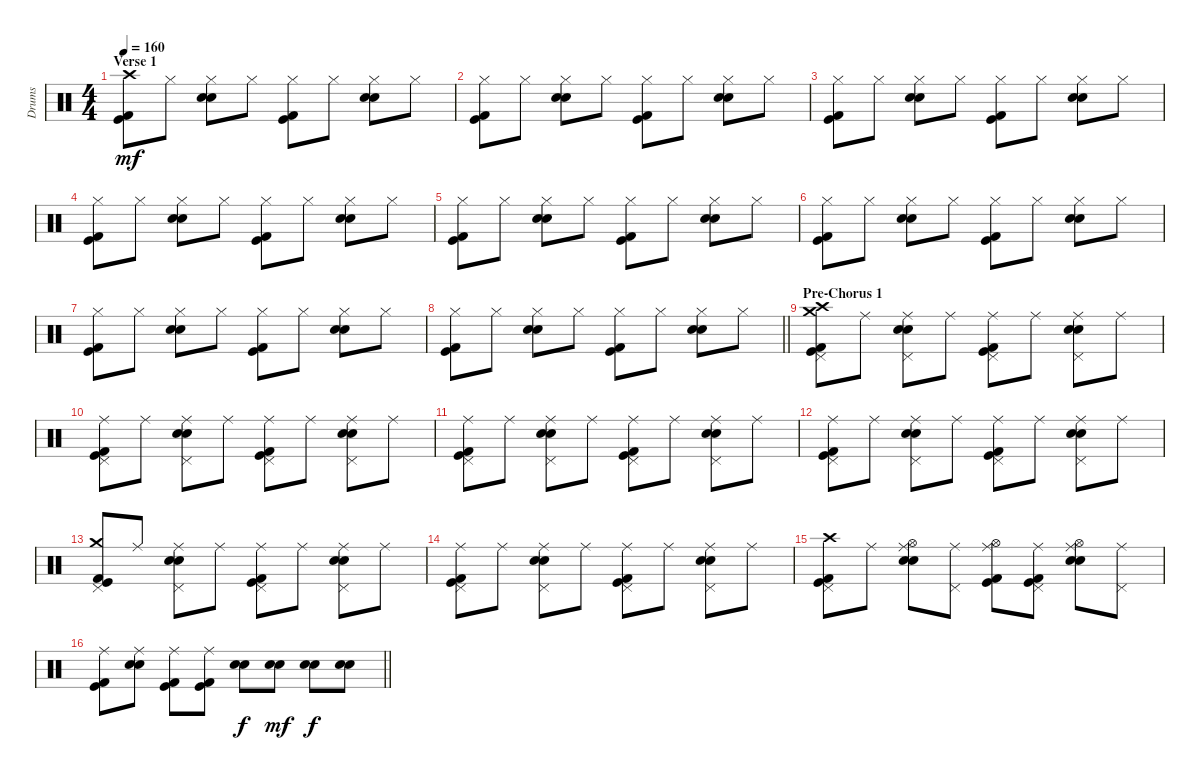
\track ("Drums" "Drums") {instrument percussion}
\staff {score}
\articulation defaults
\ts (4 4)
\section ("" "Verse 1")
\tempo 160
\clef neutral
\ks c
("Crash high (hit)" "Kick (hit) 2" "Kick (hit)").8{dy mf} "Hi-Hat (closed)".8 ("Hi-Hat (closed)" "Snare (hit) 2" "Electric Snare (hit)").8 "Hi-Hat (closed)".8 ("Hi-Hat (closed)" "Kick (hit) 2" "Kick (hit)").8 "Hi-Hat (closed)".8 ("Hi-Hat (closed)" "Snare (hit) 2" "Electric Snare (hit)").8 "Hi-Hat (closed)".8 |
("Hi-Hat (closed)" "Kick (hit) 2" "Kick (hit)").8 "Hi-Hat (closed)".8 ("Hi-Hat (closed)" "Snare (hit) 2" "Electric Snare (hit)").8 "Hi-Hat (closed)".8 ("Hi-Hat (closed)" "Kick (hit) 2" "Kick (hit)").8 "Hi-Hat (closed)".8 ("Hi-Hat (closed)" "Snare (hit) 2" "Electric Snare (hit)").8 "Hi-Hat (closed)".8 |
("Hi-Hat (closed)" "Kick (hit) 2" "Kick (hit)").8 "Hi-Hat (closed)".8 ("Hi-Hat (closed)" "Snare (hit) 2" "Electric Snare (hit)").8 "Hi-Hat (closed)".8 ("Hi-Hat (closed)" "Kick (hit) 2" "Kick (hit)").8 "Hi-Hat (closed)".8 ("Hi-Hat (closed)" "Snare (hit) 2" "Electric Snare (hit)").8 "Hi-Hat (closed)".8 |
("Hi-Hat (closed)" "Kick (hit) 2" "Kick (hit)").8 "Hi-Hat (closed)".8 ("Hi-Hat (closed)" "Snare (hit) 2" "Electric Snare (hit)").8 "Hi-Hat (closed)".8 ("Hi-Hat (closed)" "Kick (hit) 2" "Kick (hit)").8 "Hi-Hat (closed)".8 ("Hi-Hat (closed)" "Snare (hit) 2" "Electric Snare (hit)").8 "Hi-Hat (closed)".8 |
("Hi-Hat (closed)" "Kick (hit) 2" "Kick (hit)").8 "Hi-Hat (closed)".8 ("Hi-Hat (closed)" "Snare (hit) 2" "Electric Snare (hit)").8 "Hi-Hat (closed)".8 ("Hi-Hat (closed)" "Kick (hit) 2" "Kick (hit)").8 "Hi-Hat (closed)".8 ("Hi-Hat (closed)" "Snare (hit) 2" "Electric Snare (hit)").8 "Hi-Hat (closed)".8 |
("Hi-Hat (closed)" "Kick (hit) 2" "Kick (hit)").8 "Hi-Hat (closed)".8 ("Hi-Hat (closed)" "Snare (hit) 2" "Electric Snare (hit)").8 "Hi-Hat (closed)".8 ("Hi-Hat (closed)" "Kick (hit) 2" "Kick (hit)").8 "Hi-Hat (closed)".8 ("Hi-Hat (closed)" "Snare (hit) 2" "Electric Snare (hit)").8 "Hi-Hat (closed)".8 |
("Hi-Hat (closed)" "Kick (hit) 2" "Kick (hit)").8 "Hi-Hat (closed)".8 ("Hi-Hat (closed)" "Snare (hit) 2" "Electric Snare (hit)").8 "Hi-Hat (closed)".8 ("Hi-Hat (closed)" "Kick (hit) 2" "Kick (hit)").8 "Hi-Hat (closed)".8 ("Hi-Hat (closed)" "Snare (hit) 2" "Electric Snare (hit)").8 "Hi-Hat (closed)".8 |
\barLineRight lightlight
("Hi-Hat (closed)" "Kick (hit) 2" "Kick (hit)").8 "Hi-Hat (closed)".8 ("Hi-Hat (closed)" "Snare (hit) 2" "Electric Snare (hit)").8 "Hi-Hat (closed)".8 ("Hi-Hat (closed)" "Kick (hit) 2" "Kick (hit)").8 "Hi-Hat (closed)".8 ("Hi-Hat (closed)" "Snare (hit) 2" "Electric Snare (hit)").8 "Hi-Hat (closed)".8 |
\section ("" "Pre-Chorus 1")
("Crash high (hit)" "Crash medium (hit)" "Pedal Hi-Hat (hit)" "Kick (hit) 2" "Kick (hit)").8 "Ride (middle)".8 ("Ride (middle)" "Pedal Hi-Hat (hit)" "Snare (hit) 2" "Electric Snare (hit)").8 "Ride (middle)".8 ("Ride (middle)" "Pedal Hi-Hat (hit)" "Kick (hit) 2" "Kick (hit)").8 "Ride (middle)".8 ("Ride (middle)" "Pedal Hi-Hat (hit)" "Snare (hit) 2" "Electric Snare (hit)").8 "Ride (middle)".8 |
("Ride (middle)" "Pedal Hi-Hat (hit)" "Kick (hit) 2" "Kick (hit)").8 "Ride (middle)".8 ("Ride (middle)" "Pedal Hi-Hat (hit)" "Snare (hit) 2" "Electric Snare (hit)").8 "Ride (middle)".8 ("Ride (middle)" "Pedal Hi-Hat (hit)" "Kick (hit) 2" "Kick (hit)").8 "Ride (middle)".8 ("Ride (middle)" "Pedal Hi-Hat (hit)" "Snare (hit) 2" "Electric Snare (hit)").8 "Ride (middle)".8 |
("Ride (middle)" "Pedal Hi-Hat (hit)" "Kick (hit) 2" "Kick (hit)").8 "Ride (middle)".8 ("Ride (middle)" "Pedal Hi-Hat (hit)" "Snare (hit) 2" "Electric Snare (hit)").8 "Ride (middle)".8 ("Ride (middle)" "Pedal Hi-Hat (hit)" "Kick (hit) 2" "Kick (hit)").8 "Ride (middle)".8 ("Ride (middle)" "Pedal Hi-Hat (hit)" "Snare (hit) 2" "Electric Snare (hit)").8 "Ride (middle)".8 |
("Ride (middle)" "Pedal Hi-Hat (hit)" "Kick (hit) 2" "Kick (hit)").8 "Ride (middle)".8 ("Ride (middle)" "Pedal Hi-Hat (hit)" "Snare (hit) 2" "Electric Snare (hit)").8 "Ride (middle)".8 ("Ride (middle)" "Pedal Hi-Hat (hit)" "Kick (hit) 2" "Kick (hit)").8 "Ride (middle)".8 ("Ride (middle)" "Pedal Hi-Hat (hit)" "Snare (hit) 2" "Electric Snare (hit)").8 "Ride (middle)".8 |
("Crash medium (hit)" "Pedal Hi-Hat (hit)" "Kick (hit) 2" "Kick (hit)").8 "Ride (middle)".8 ("Ride (middle)" "Pedal Hi-Hat (hit)" "Snare (hit) 2" "Electric Snare (hit)").8 "Ride (middle)".8 ("Ride (middle)" "Pedal Hi-Hat (hit)" "Kick (hit) 2" "Kick (hit)").8 "Ride (middle)".8 ("Ride (middle)" "Pedal Hi-Hat (hit)" "Snare (hit) 2" "Electric Snare (hit)").8 "Ride (middle)".8 |
("Ride (middle)" "Pedal Hi-Hat (hit)" "Kick (hit) 2" "Kick (hit)").8 "Ride (middle)".8 ("Ride (middle)" "Pedal Hi-Hat (hit)" "Snare (hit) 2" "Electric Snare (hit)").8 "Ride (middle)".8 ("Ride (middle)" "Pedal Hi-Hat (hit)" "Kick (hit) 2" "Kick (hit)").8 "Ride (middle)".8 ("Ride (middle)" "Pedal Hi-Hat (hit)" "Snare (hit) 2" "Electric Snare (hit)").8 "Ride (middle)".8 |
("Crash high (hit)" "Pedal Hi-Hat (hit)" "Kick (hit) 2" "Kick (hit)").8 "Ride (middle)".8 ("Ride (middle)" "Hi-Hat (open)" "Snare (hit) 2" "Electric Snare (hit)").8 ("Ride (middle)" "Pedal Hi-Hat (hit)").8 ("Ride (middle)" "Hi-Hat (open)" "Kick (hit) 2" "Kick (hit)").8 ("Ride (middle)" "Pedal Hi-Hat (hit)" "Kick (hit) 2" "Kick (hit)").8 ("Ride (middle)" "Hi-Hat (open)" "Snare (hit) 2" "Electric Snare (hit)").8 ("Ride (middle)" "Pedal Hi-Hat (hit)").8 |
\barLineRight lightlight
("Ride (middle)" "Kick (hit) 2" "Kick (hit)").8 ("Ride (middle)" "Snare (hit) 2" "Electric Snare (hit)").8 ("Ride (middle)" "Kick (hit) 2" "Kick (hit)").8 ("Ride (middle)" "Kick (hit) 2" "Kick (hit)").8 ("Snare (hit) 2" "Electric Snare (hit)").8{dy f} ("Snare (hit) 2" "Electric Snare (hit)").8{dy mf} ("Snare (hit) 2" "Electric Snare (hit)").8{dy f} ("Snare (hit) 2" "Electric Snare (hit)").8
